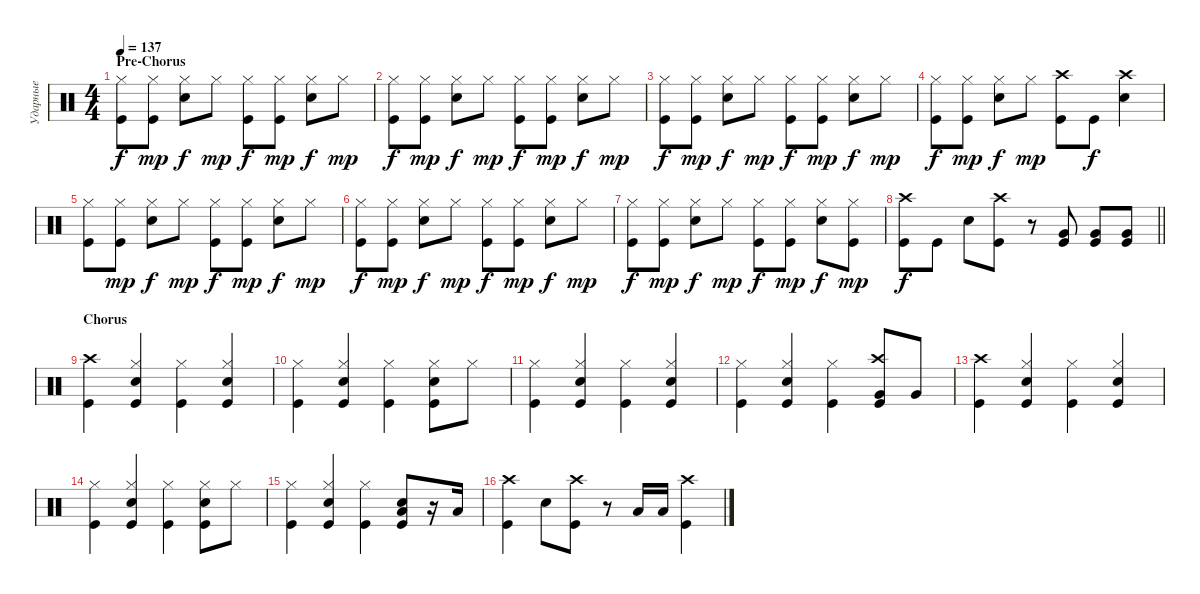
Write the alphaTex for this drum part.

\track ("Ударные" "Ударные") {instrument percussion}
\staff {score}
\articulation defaults
\ts (4 4)
\section ("" "Pre-Chorus")
\tempo 137
\clef neutral
\ks aminor
("Kick (hit)" "Hi-Hat (closed)").8{dy f} ("Kick (hit)" "Hi-Hat (closed)").8{dy mp} ("Snare (hit) 2" "Hi-Hat (closed)").8{dy f} "Hi-Hat (closed)".8{dy mp} ("Hi-Hat (closed)" "Kick (hit)").8{dy f} ("Hi-Hat (closed)" "Kick (hit)").8{dy mp} ("Hi-Hat (closed)" "Snare (hit) 2").8{dy f} "Hi-Hat (closed)".8{dy mp} |
("Kick (hit)" "Hi-Hat (closed)").8{dy f} ("Kick (hit)" "Hi-Hat (closed)").8{dy mp} ("Snare (hit) 2" "Hi-Hat (closed)").8{dy f} "Hi-Hat (closed)".8{dy mp} ("Hi-Hat (closed)" "Kick (hit)").8{dy f} ("Hi-Hat (closed)" "Kick (hit)").8{dy mp} ("Hi-Hat (closed)" "Snare (hit) 2").8{dy f} "Hi-Hat (closed)".8{dy mp} |
("Kick (hit)" "Hi-Hat (closed)").8{dy f} ("Kick (hit)" "Hi-Hat (closed)").8{dy mp} ("Snare (hit) 2" "Hi-Hat (closed)").8{dy f} "Hi-Hat (closed)".8{dy mp} ("Hi-Hat (closed)" "Kick (hit)").8{dy f} ("Hi-Hat (closed)" "Kick (hit)").8{dy mp} ("Hi-Hat (closed)" "Snare (hit) 2").8{dy f} "Hi-Hat (closed)".8{dy mp} |
("Kick (hit)" "Hi-Hat (closed)").8{dy f} ("Kick (hit)" "Hi-Hat (closed)").8{dy mp} ("Snare (hit) 2" "Hi-Hat (closed)").8{dy f} "Hi-Hat (closed)".8{dy mp} ("Crash high (hit)" "Kick (hit)").8 "Kick (hit)".8{dy f} ("Crash high (hit)" "Snare (hit) 2").4 |
("Kick (hit)" "Hi-Hat (closed)").8 ("Kick (hit)" "Hi-Hat (closed)").8{dy mp} ("Snare (hit) 2" "Hi-Hat (closed)").8{dy f} "Hi-Hat (closed)".8{dy mp} ("Hi-Hat (closed)" "Kick (hit)").8{dy f} ("Hi-Hat (closed)" "Kick (hit)").8{dy mp} ("Hi-Hat (closed)" "Snare (hit) 2").8{dy f} "Hi-Hat (closed)".8{dy mp} |
("Kick (hit)" "Hi-Hat (closed)").8{dy f} ("Kick (hit)" "Hi-Hat (closed)").8{dy mp} ("Snare (hit) 2" "Hi-Hat (closed)").8{dy f} "Hi-Hat (closed)".8{dy mp} ("Hi-Hat (closed)" "Kick (hit)").8{dy f} ("Hi-Hat (closed)" "Kick (hit)").8{dy mp} ("Hi-Hat (closed)" "Snare (hit) 2").8{dy f} "Hi-Hat (closed)".8{dy mp} |
("Kick (hit)" "Hi-Hat (closed)").8{dy f} ("Kick (hit)" "Hi-Hat (closed)").8{dy mp} ("Snare (hit) 2" "Hi-Hat (closed)").8{dy f} "Hi-Hat (closed)".8{dy mp} ("Hi-Hat (closed)" "Kick (hit)").8{dy f} ("Hi-Hat (closed)" "Kick (hit)").8{dy mp} ("Hi-Hat (closed)" "Snare (hit) 2").8{dy f} ("Hi-Hat (closed)" "Kick (hit)").8{dy mp} |
\barLineRight lightlight
("Kick (hit)" "Crash high (hit)").8{dy f} "Kick (hit)".8 "Snare (hit) 2".8 ("Kick (hit)" "Crash high (hit)").8 r.8 ("Kick (hit)" "Very Low Tom (hit)").8 ("Kick (hit)" "Very Low Tom (hit)").8 ("Kick (hit)" "Very Low Tom (hit)").8 |
\section ("" "Chorus")
("Kick (hit)" "Crash high (hit)").4 ("Snare (hit) 2" "Hi-Hat (closed)" "Kick (hit)").4 ("Kick (hit)" "Hi-Hat (closed)").4 ("Snare (hit) 2" "Hi-Hat (closed)" "Kick (hit)").4 |
("Hi-Hat (closed)" "Kick (hit)").4 ("Snare (hit) 2" "Hi-Hat (closed)" "Kick (hit)").4 ("Kick (hit)" "Hi-Hat (closed)").4 ("Snare (hit) 2" "Hi-Hat (closed)" "Kick (hit)").8 "Hi-Hat (closed)".8 |
("Kick (hit)" "Hi-Hat (closed)").4 ("Snare (hit) 2" "Hi-Hat (closed)" "Kick (hit)").4 ("Kick (hit)" "Hi-Hat (closed)").4 ("Snare (hit) 2" "Hi-Hat (closed)" "Kick (hit)").4 |
("Kick (hit)" "Hi-Hat (closed)").4 ("Snare (hit) 2" "Hi-Hat (closed)" "Kick (hit)").4 ("Kick (hit)" "Hi-Hat (closed)").4 ("Kick (hit)" "Very Low Tom (hit)" "Crash high (hit)").8 "Very Low Tom (hit)".8 |
("Kick (hit)" "Crash high (hit)").4 ("Snare (hit) 2" "Hi-Hat (closed)" "Kick (hit)").4 ("Kick (hit)" "Hi-Hat (closed)").4 ("Snare (hit) 2" "Hi-Hat (closed)" "Kick (hit)").4 |
("Hi-Hat (closed)" "Kick (hit)").4 ("Snare (hit) 2" "Hi-Hat (closed)" "Kick (hit)").4 ("Kick (hit)" "Hi-Hat (closed)").4 ("Snare (hit) 2" "Hi-Hat (closed)" "Kick (hit)").8 "Hi-Hat (closed)".8 |
("Kick (hit)" "Hi-Hat (closed)").4 ("Snare (hit) 2" "Hi-Hat (closed)" "Kick (hit)").4 ("Kick (hit)" "Hi-Hat (closed)").4 ("Snare (hit) 2" "Low Tom (hit)" "Kick (hit)").8{bd 60} r.16 "Low Tom (hit)".16 |
("Kick (hit)" "Crash high (hit)").4 "Snare (hit) 2".8 ("Kick (hit)" "Crash high (hit)").8 r.8 "Low Tom (hit)".16 "Low Tom (hit)".16 ("Kick (hit)" "Crash high (hit)").4
